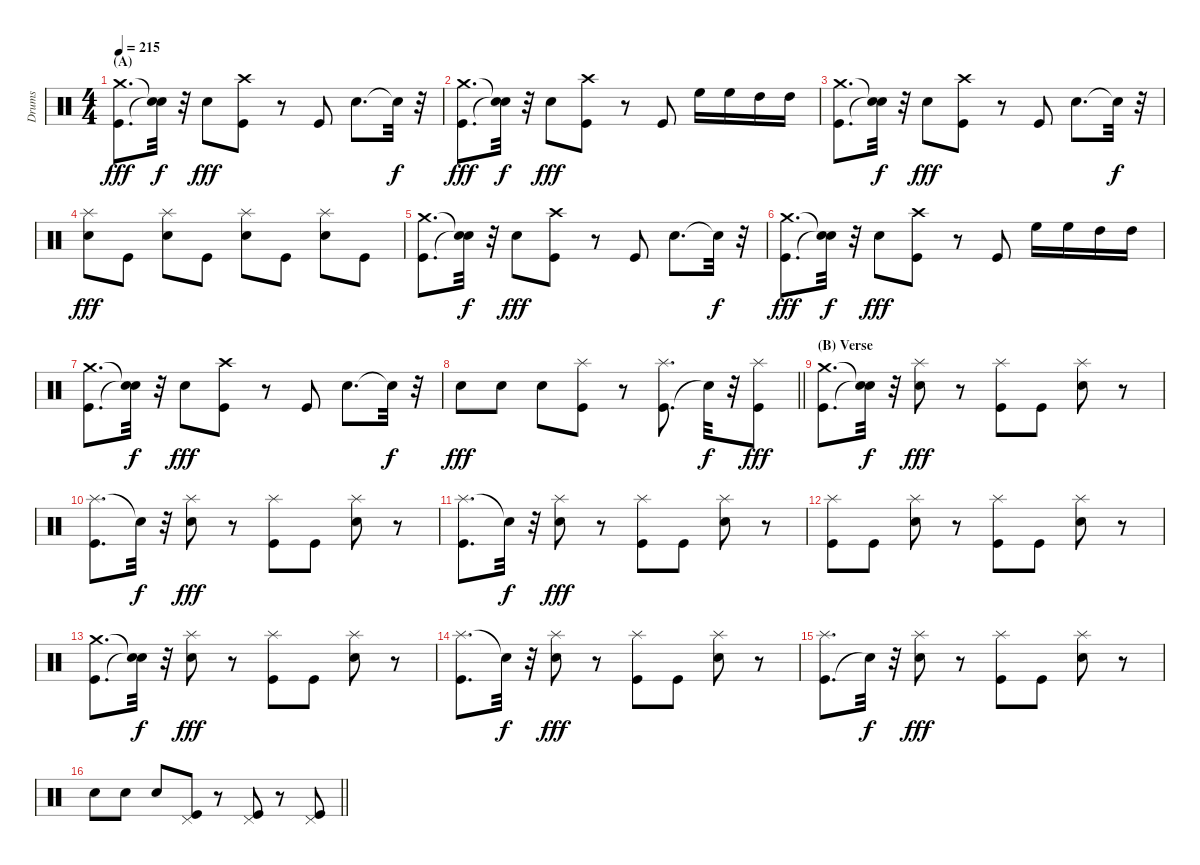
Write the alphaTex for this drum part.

\track ("Drums" "Drums") {instrument percussion}
\staff {score}
\articulation defaults
\ts (4 4)
\section ("" "(A)")
\tempo 215
\clef neutral
\ks c
("Kick (hit)" "Crash medium (hit)").8{d dy fff} ("Snare (hit)"{t} "Snare (hit)"{t}).32{dy f} r.32 "Electric Snare (hit)".8{dy fff} ("Crash high (hit)" "Kick (hit)").8 r.8 "Kick (hit)".8 "Electric Snare (hit)".8{d} "Snare (hit)"{t}.32{dy f} r.32 |
("Kick (hit)" "Crash medium (hit)").8{d dy fff} ("Snare (hit)"{t} "Snare (hit)"{t}).32{dy f} r.32 "Electric Snare (hit)".8{dy fff} ("Crash high (hit)" "Kick (hit)").8 r.8 "Kick (hit)".8 "High Floor Tom (hit)".16 "High Floor Tom (hit)".16 "High Tom (hit)".16 "High Tom (hit)".16 |
("Kick (hit)" "Crash medium (hit)").8{d} ("Snare (hit)"{t} "Snare (hit)"{t}).32{dy f} r.32 "Electric Snare (hit)".8{dy fff} ("Crash high (hit)" "Kick (hit)").8 r.8 "Kick (hit)".8 "Electric Snare (hit)".8{d} "Snare (hit)"{t}.32{dy f} r.32 |
("Splash (hit)" "Electric Snare (hit)").8{dy fff} "Kick (hit)".8 ("Splash (hit)" "Electric Snare (hit)").8 "Kick (hit)".8 ("Splash (hit)" "Electric Snare (hit)").8 "Kick (hit)".8 ("Splash (hit)" "Electric Snare (hit)").8 "Kick (hit)".8 |
("Kick (hit)" "Crash medium (hit)").8{d} ("Snare (hit)"{t} "Snare (hit)"{t}).32{dy f} r.32 "Electric Snare (hit)".8{dy fff} ("Crash high (hit)" "Kick (hit)").8 r.8 "Kick (hit)".8 "Electric Snare (hit)".8{d} "Snare (hit)"{t}.32{dy f} r.32 |
("Kick (hit)" "Crash medium (hit)").8{d dy fff} ("Snare (hit)"{t} "Snare (hit)"{t}).32{dy f} r.32 "Electric Snare (hit)".8{dy fff} ("Crash high (hit)" "Kick (hit)").8 r.8 "Kick (hit)".8 "High Floor Tom (hit)".16 "High Floor Tom (hit)".16 "High Tom (hit)".16 "High Tom (hit)".16 |
("Kick (hit)" "Crash medium (hit)").8{d} ("Snare (hit)"{t} "Snare (hit)"{t}).32{dy f} r.32 "Electric Snare (hit)".8{dy fff} ("Crash high (hit)" "Kick (hit)").8 r.8 "Kick (hit)".8 "Electric Snare (hit)".8{d} "Snare (hit)"{t}.32{dy f} r.32 |
\barLineRight lightlight "Electric Snare (hit)".8{dy fff} "Electric Snare (hit)".8 "Electric Snare (hit)".8
("Kick (hit)" "Splash (hit)").8 r.8 ("Kick (hit)" "Splash (hit)").8{d} "Snare (hit)"{t}.32{dy f} r.32 ("Kick (hit)" "Splash (hit)").8{dy fff} |
\section ("" "(B) Verse")
("Kick (hit)" "Crash medium (hit)").8{d} ("Snare (hit)"{t} "Snare (hit)"{t}).32{dy f} r.32 ("Splash (hit)" "Electric Snare (hit)").8{dy fff} r.8 ("Kick (hit)" "Splash (hit)").8 "Kick (hit)".8 ("Electric Snare (hit)" "Splash (hit)").8 r.8 |
("Splash (hit)" "Kick (hit)").8{d} "Snare (hit)"{t}.32{dy f} r.32 ("Splash (hit)" "Electric Snare (hit)").8{dy fff} r.8 ("Kick (hit)" "Splash (hit)").8 "Kick (hit)".8 ("Electric Snare (hit)" "Splash (hit)").8 r.8 |
("Splash (hit)" "Kick (hit)").8{d} "Snare (hit)"{t}.32{dy f} r.32 ("Splash (hit)" "Electric Snare (hit)").8{dy fff} r.8 ("Kick (hit)" "Splash (hit)").8 "Kick (hit)".8 ("Electric Snare (hit)" "Splash (hit)").8 r.8 |
("Splash (hit)" "Kick (hit)").8 "Kick (hit)".8 ("Splash (hit)" "Electric Snare (hit)").8 r.8 ("Kick (hit)" "Splash (hit)").8 "Kick (hit)".8 ("Electric Snare (hit)" "Splash (hit)").8 r.8 |
("Kick (hit)" "Crash medium (hit)").8{d} ("Snare (hit)"{t} "Snare (hit)"{t}).32{dy f} r.32 ("Splash (hit)" "Electric Snare (hit)").8{dy fff} r.8 ("Kick (hit)" "Splash (hit)").8 "Kick (hit)".8 ("Splash (hit)" "Electric Snare (hit)").8 r.8 |
("Splash (hit)" "Kick (hit)").8{d} "Snare (hit)"{t}.32{dy f} r.32 ("Splash (hit)" "Electric Snare (hit)").8{dy fff} r.8 ("Kick (hit)" "Splash (hit)").8 "Kick (hit)".8 ("Electric Snare (hit)" "Splash (hit)").8 r.8 |
("Kick (hit)" "Splash (hit)").8{d} "Snare (hit)"{t}.32{dy f} r.32 ("Electric Snare (hit)" "Splash (hit)").8{dy fff} r.8 ("Kick (hit)" "Splash (hit)").8 "Kick (hit)".8 ("Electric Snare (hit)" "Splash (hit)").8 r.8 |
\barLineRight lightlight "Electric Snare (hit)".8 "Electric Snare (hit)".8 "Electric Snare (hit)".8
("Pedal Hi-Hat (hit)" "Kick (hit)").8 r.8 ("Pedal Hi-Hat (hit)" "Kick (hit)").8 r.8 ("Pedal Hi-Hat (hit)" "Kick (hit)").8
